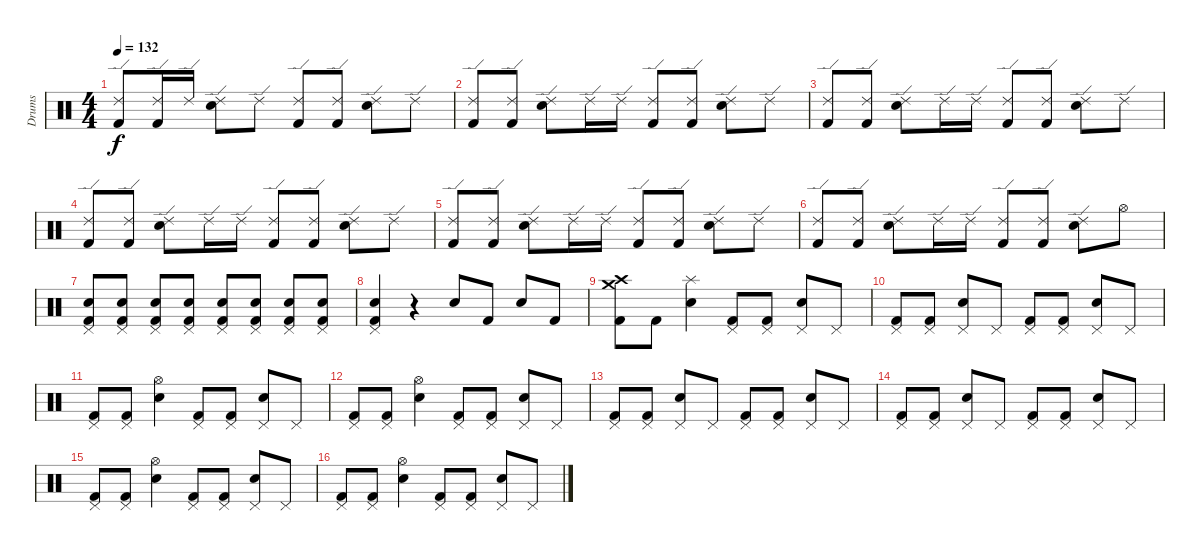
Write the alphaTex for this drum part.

\track ("Drums" "Drums") {instrument percussion}
\staff {score}
\articulation defaults
\ts (4 4)
\tempo 132
\clef neutral
\ks c
("Kick (hit) 2" "Ride (edge) 2").8{dy f} ("Kick (hit) 2" "Ride (edge) 2").16 "Ride (edge) 2".16 ("Snare (hit) 2" "Ride (edge) 2").8 "Ride (edge) 2".8 ("Kick (hit) 2" "Ride (edge) 2").8 ("Kick (hit) 2" "Ride (edge) 2").8 ("Snare (hit) 2" "Ride (edge) 2").8 "Ride (edge) 2".8 |
("Kick (hit) 2" "Ride (edge) 2").8 ("Kick (hit) 2" "Ride (edge) 2").8 ("Snare (hit) 2" "Ride (edge) 2").8 "Ride (edge) 2".16 "Ride (edge) 2".16 ("Kick (hit) 2" "Ride (edge) 2").8 ("Kick (hit) 2" "Ride (edge) 2").8 ("Snare (hit) 2" "Ride (edge) 2").8 "Ride (edge) 2".8 |
("Kick (hit) 2" "Ride (edge) 2").8 ("Kick (hit) 2" "Ride (edge) 2").8 ("Snare (hit) 2" "Ride (edge) 2").8 "Ride (edge) 2".16 "Ride (edge) 2".16 ("Kick (hit) 2" "Ride (edge) 2").8 ("Kick (hit) 2" "Ride (edge) 2").8 ("Snare (hit) 2" "Ride (edge) 2").8 "Ride (edge) 2".8 |
("Kick (hit) 2" "Ride (edge) 2").8 ("Kick (hit) 2" "Ride (edge) 2").8 ("Snare (hit) 2" "Ride (edge) 2").8 "Ride (edge) 2".16 "Ride (edge) 2".16 ("Kick (hit) 2" "Ride (edge) 2").8 ("Kick (hit) 2" "Ride (edge) 2").8 ("Snare (hit) 2" "Ride (edge) 2").8 "Ride (edge) 2".8 |
("Ride (edge) 2" "Kick (hit) 2").8 ("Ride (edge) 2" "Kick (hit) 2").8 ("Ride (edge) 2" "Snare (hit) 2").8 "Ride (edge) 2".16 "Ride (edge) 2".16 ("Ride (edge) 2" "Kick (hit) 2").8 ("Ride (edge) 2" "Kick (hit) 2").8 ("Ride (edge) 2" "Snare (hit) 2").8 "Ride (edge) 2".8 |
("Ride (edge) 2" "Kick (hit) 2").8 ("Ride (edge) 2" "Kick (hit) 2").8 ("Ride (edge) 2" "Snare (hit) 2").8 "Ride (edge) 2".16 "Ride (edge) 2".16 ("Ride (edge) 2" "Kick (hit) 2").8 ("Ride (edge) 2" "Kick (hit) 2").8 ("Ride (edge) 2" "Snare (hit) 2").8 "Hi-Hat (open)".8{volume 12} |
("Snare (hit) 2" "Kick (hit) 2" "Pedal Hi-Hat (hit)").8{volume 5} ("Snare (hit) 2" "Kick (hit) 2" "Pedal Hi-Hat (hit)").8{volume 6} ("Snare (hit) 2" "Kick (hit) 2" "Pedal Hi-Hat (hit)").8{volume 7} ("Snare (hit) 2" "Kick (hit) 2" "Pedal Hi-Hat (hit)").8{volume 8} ("Snare (hit) 2" "Kick (hit) 2" "Pedal Hi-Hat (hit)").8{volume 9} ("Snare (hit) 2" "Kick (hit) 2" "Pedal Hi-Hat (hit)").8{volume 10} ("Snare (hit) 2" "Kick (hit) 2" "Pedal Hi-Hat (hit)").8{volume 11} ("Snare (hit) 2" "Kick (hit) 2" "Pedal Hi-Hat (hit)").8{volume 12} |
("Kick (hit) 2" "Snare (hit) 2" "Pedal Hi-Hat (hit)").4{volume 12} r.4 "Snare (hit) 2".8{volume 12} "Kick (hit) 2".8 "Snare (hit) 2".8 "Kick (hit) 2".8 |
("Crash high (hit)" "Crash medium (hit)" "Kick (hit) 2").8 "Kick (hit) 2".8 ("Splash (hit)" "Snare (hit) 2").4 ("Pedal Hi-Hat (hit)" "Kick (hit) 2").8 ("Pedal Hi-Hat (hit)" "Kick (hit) 2").8 ("Pedal Hi-Hat (hit)" "Snare (hit) 2").8 "Pedal Hi-Hat (hit)".8 |
("Kick (hit) 2" "Pedal Hi-Hat (hit)").8 ("Kick (hit) 2" "Pedal Hi-Hat (hit)").8 ("Snare (hit) 2" "Pedal Hi-Hat (hit)").8 "Pedal Hi-Hat (hit)".8 ("Kick (hit) 2" "Pedal Hi-Hat (hit)").8 ("Kick (hit) 2" "Pedal Hi-Hat (hit)").8 ("Snare (hit) 2" "Pedal Hi-Hat (hit)").8 "Pedal Hi-Hat (hit)".8 |
("Kick (hit) 2" "Pedal Hi-Hat (hit)").8 ("Kick (hit) 2" "Pedal Hi-Hat (hit)").8 ("Snare (hit) 2" "Hi-Hat (open)").4 ("Kick (hit) 2" "Pedal Hi-Hat (hit)").8 ("Kick (hit) 2" "Pedal Hi-Hat (hit)").8 ("Snare (hit) 2" "Pedal Hi-Hat (hit)").8 "Pedal Hi-Hat (hit)".8 |
("Kick (hit) 2" "Pedal Hi-Hat (hit)").8 ("Kick (hit) 2" "Pedal Hi-Hat (hit)").8 ("Snare (hit) 2" "Hi-Hat (open)").4 ("Kick (hit) 2" "Pedal Hi-Hat (hit)").8 ("Kick (hit) 2" "Pedal Hi-Hat (hit)").8 ("Snare (hit) 2" "Pedal Hi-Hat (hit)").8 "Pedal Hi-Hat (hit)".8 |
("Kick (hit) 2" "Pedal Hi-Hat (hit)").8 ("Kick (hit) 2" "Pedal Hi-Hat (hit)").8 ("Snare (hit) 2" "Pedal Hi-Hat (hit)").8 "Pedal Hi-Hat (hit)".8 ("Kick (hit) 2" "Pedal Hi-Hat (hit)").8 ("Kick (hit) 2" "Pedal Hi-Hat (hit)").8 ("Snare (hit) 2" "Pedal Hi-Hat (hit)").8 "Pedal Hi-Hat (hit)".8 |
("Kick (hit) 2" "Pedal Hi-Hat (hit)").8 ("Kick (hit) 2" "Pedal Hi-Hat (hit)").8 ("Snare (hit) 2" "Pedal Hi-Hat (hit)").8 "Pedal Hi-Hat (hit)".8 ("Kick (hit) 2" "Pedal Hi-Hat (hit)").8 ("Kick (hit) 2" "Pedal Hi-Hat (hit)").8 ("Snare (hit) 2" "Pedal Hi-Hat (hit)").8 "Pedal Hi-Hat (hit)".8 |
("Kick (hit) 2" "Pedal Hi-Hat (hit)").8 ("Kick (hit) 2" "Pedal Hi-Hat (hit)").8 ("Snare (hit) 2" "Hi-Hat (open)").4 ("Kick (hit) 2" "Pedal Hi-Hat (hit)").8 ("Kick (hit) 2" "Pedal Hi-Hat (hit)").8 ("Snare (hit) 2" "Pedal Hi-Hat (hit)").8 "Pedal Hi-Hat (hit)".8 |
("Kick (hit) 2" "Pedal Hi-Hat (hit)").8 ("Kick (hit) 2" "Pedal Hi-Hat (hit)").8 ("Snare (hit) 2" "Hi-Hat (open)").4 ("Kick (hit) 2" "Pedal Hi-Hat (hit)").8 ("Kick (hit) 2" "Pedal Hi-Hat (hit)").8 ("Snare (hit) 2" "Pedal Hi-Hat (hit)").8 "Pedal Hi-Hat (hit)".8
